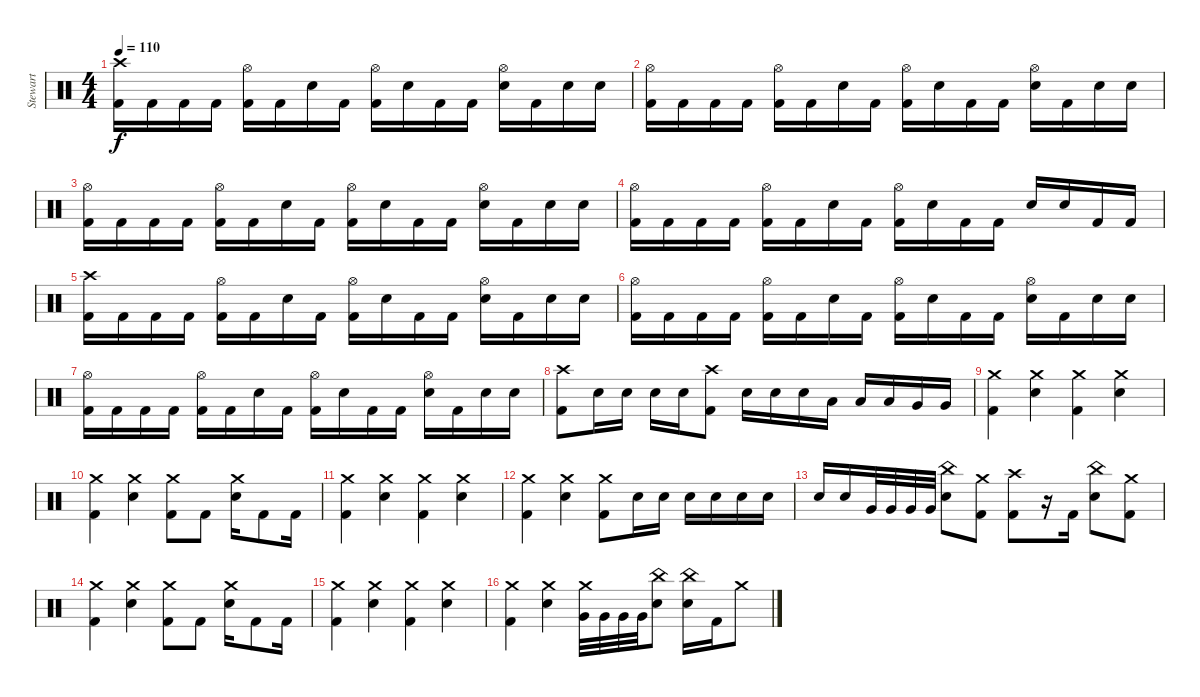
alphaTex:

\track ("Stewart" "Stewart") {instrument percussion}
\staff {score}
\articulation defaults
\ts (4 4)
\tempo 110
\clef neutral
\ks c
("Crash high (hit)" "Kick (hit) 2").16{dy f} "Kick (hit) 2".16 "Kick (hit) 2".16 "Kick (hit) 2".16 ("Hi-Hat (open)" "Kick (hit) 2").16 "Kick (hit) 2".16 "Electric Snare (hit)".16 "Kick (hit) 2".16 ("Hi-Hat (open)" "Kick (hit) 2").16 "Electric Snare (hit)".16 "Kick (hit) 2".16 "Kick (hit) 2".16 ("Hi-Hat (open)" "Electric Snare (hit)").16 "Kick (hit) 2".16 "Electric Snare (hit)".16 "Electric Snare (hit)".16 |
("Hi-Hat (open)" "Kick (hit) 2").16 "Kick (hit) 2".16 "Kick (hit) 2".16 "Kick (hit) 2".16 ("Hi-Hat (open)" "Kick (hit) 2").16 "Kick (hit) 2".16 "Electric Snare (hit)".16 "Kick (hit) 2".16 ("Hi-Hat (open)" "Kick (hit) 2").16 "Electric Snare (hit)".16 "Kick (hit) 2".16 "Kick (hit) 2".16 ("Hi-Hat (open)" "Electric Snare (hit)").16 "Kick (hit) 2".16 "Electric Snare (hit)".16 "Electric Snare (hit)".16 |
("Hi-Hat (open)" "Kick (hit) 2").16 "Kick (hit) 2".16 "Kick (hit) 2".16 "Kick (hit) 2".16 ("Hi-Hat (open)" "Kick (hit) 2").16 "Kick (hit) 2".16 "Electric Snare (hit)".16 "Kick (hit) 2".16 ("Hi-Hat (open)" "Kick (hit) 2").16 "Electric Snare (hit)".16 "Kick (hit) 2".16 "Kick (hit) 2".16 ("Hi-Hat (open)" "Electric Snare (hit)").16 "Kick (hit) 2".16 "Electric Snare (hit)".16 "Electric Snare (hit)".16 |
("Hi-Hat (open)" "Kick (hit) 2").16 "Kick (hit) 2".16 "Kick (hit) 2".16 "Kick (hit) 2".16 ("Hi-Hat (open)" "Kick (hit) 2").16 "Kick (hit) 2".16 "Electric Snare (hit)".16 "Kick (hit) 2".16 ("Hi-Hat (open)" "Kick (hit) 2").16 "Electric Snare (hit)".16 "Kick (hit) 2".16 "Kick (hit) 2".16 "Electric Snare (hit)".16 "Electric Snare (hit)".16 "Kick (hit) 2".16 "Kick (hit) 2".16 |
("Crash high (hit)" "Kick (hit) 2").16 "Kick (hit) 2".16 "Kick (hit) 2".16 "Kick (hit) 2".16 ("Hi-Hat (open)" "Kick (hit) 2").16 "Kick (hit) 2".16 "Electric Snare (hit)".16 "Kick (hit) 2".16 ("Hi-Hat (open)" "Kick (hit) 2").16 "Electric Snare (hit)".16 "Kick (hit) 2".16 "Kick (hit) 2".16 ("Hi-Hat (open)" "Electric Snare (hit)").16 "Kick (hit) 2".16 "Electric Snare (hit)".16 "Electric Snare (hit)".16 |
("Hi-Hat (open)" "Kick (hit) 2").16 "Kick (hit) 2".16 "Kick (hit) 2".16 "Kick (hit) 2".16 ("Hi-Hat (open)" "Kick (hit) 2").16 "Kick (hit) 2".16 "Electric Snare (hit)".16 "Kick (hit) 2".16 ("Hi-Hat (open)" "Kick (hit) 2").16 "Electric Snare (hit)".16 "Kick (hit) 2".16 "Kick (hit) 2".16 ("Hi-Hat (open)" "Electric Snare (hit)").16 "Kick (hit) 2".16 "Electric Snare (hit)".16 "Electric Snare (hit)".16 |
("Hi-Hat (open)" "Kick (hit) 2").16 "Kick (hit) 2".16 "Kick (hit) 2".16 "Kick (hit) 2".16 ("Hi-Hat (open)" "Kick (hit) 2").16 "Kick (hit) 2".16 "Electric Snare (hit)".16 "Kick (hit) 2".16 ("Hi-Hat (open)" "Kick (hit) 2").16 "Electric Snare (hit)".16 "Kick (hit) 2".16 "Kick (hit) 2".16 ("Hi-Hat (open)" "Electric Snare (hit)").16 "Kick (hit) 2".16 "Electric Snare (hit)".16 "Electric Snare (hit)".16 |
("Crash high (hit)" "Kick (hit) 2").8 "Electric Snare (hit)".16 "Electric Snare (hit)".16 "Electric Snare (hit)".16 "Electric Snare (hit)".16 ("Crash high (hit)" "Kick (hit) 2").8 "Electric Snare (hit)".16 "Electric Snare (hit)".16 "Electric Snare (hit)".16 "Low Tom (hit)".16 "Low Tom (hit)".16 "Low Tom (hit)".16 "Very Low Tom (hit)".16 "Very Low Tom (hit)".16 |
("Crash medium (hit)" "Kick (hit) 2").4 ("Crash medium (hit)" "Electric Snare (hit)").4 ("Crash medium (hit)" "Kick (hit) 2").4 ("Crash medium (hit)" "Electric Snare (hit)").4 |
("Crash medium (hit)" "Kick (hit) 2").4 ("Crash medium (hit)" "Electric Snare (hit)").4 ("Crash medium (hit)" "Kick (hit) 2").8 "Kick (hit) 2".8 ("Crash medium (hit)" "Electric Snare (hit)").16 "Kick (hit) 2".8 "Kick (hit) 2".16 |
("Crash medium (hit)" "Kick (hit) 2").4 ("Crash medium (hit)" "Electric Snare (hit)").4 ("Crash medium (hit)" "Kick (hit) 2").4 ("Crash medium (hit)" "Electric Snare (hit)").4 |
("Crash medium (hit)" "Kick (hit) 2").4 ("Crash medium (hit)" "Electric Snare (hit)").4 ("Crash medium (hit)" "Kick (hit) 2").8 "Electric Snare (hit)".16 "Electric Snare (hit)".16 "Electric Snare (hit)".16 "Electric Snare (hit)".16 "Electric Snare (hit)".16 "Electric Snare (hit)".16 |
"Electric Snare (hit)".16 "Electric Snare (hit)".16 "Very Low Tom (hit)".32 "Very Low Tom (hit)".32 "Very Low Tom (hit)".32 "Very Low Tom (hit)".32 ("China (hit)" "Electric Snare (hit)").8 ("Crash medium (hit)" "Kick (hit) 2").8 ("Crash high (hit)" "Kick (hit) 2").8 r.16 "Kick (hit) 2".16 ("China (hit)" "Electric Snare (hit)").8 ("Crash medium (hit)" "Kick (hit) 2").8 |
("Crash medium (hit)" "Kick (hit) 2").4 ("Crash medium (hit)" "Electric Snare (hit)").4 ("Crash medium (hit)" "Kick (hit) 2").8 "Kick (hit) 2".8 ("Crash medium (hit)" "Electric Snare (hit)").16 "Kick (hit) 2".8 "Kick (hit) 2".16 |
("Crash medium (hit)" "Kick (hit) 2").4 ("Crash medium (hit)" "Electric Snare (hit)").4 ("Crash medium (hit)" "Kick (hit) 2").4 ("Crash medium (hit)" "Electric Snare (hit)").4 |
("Crash medium (hit)" "Kick (hit) 2").4 ("Crash medium (hit)" "Electric Snare (hit)").4 ("Crash medium (hit)" "Very Low Tom (hit)").32 "Very Low Tom (hit)".32 "Very Low Tom (hit)".32 "Very Low Tom (hit)".32 ("China (hit)" "Electric Snare (hit)").8 ("China (hit)" "Electric Snare (hit)").16 "Kick (hit) 2".16 "Crash medium (hit)".8
